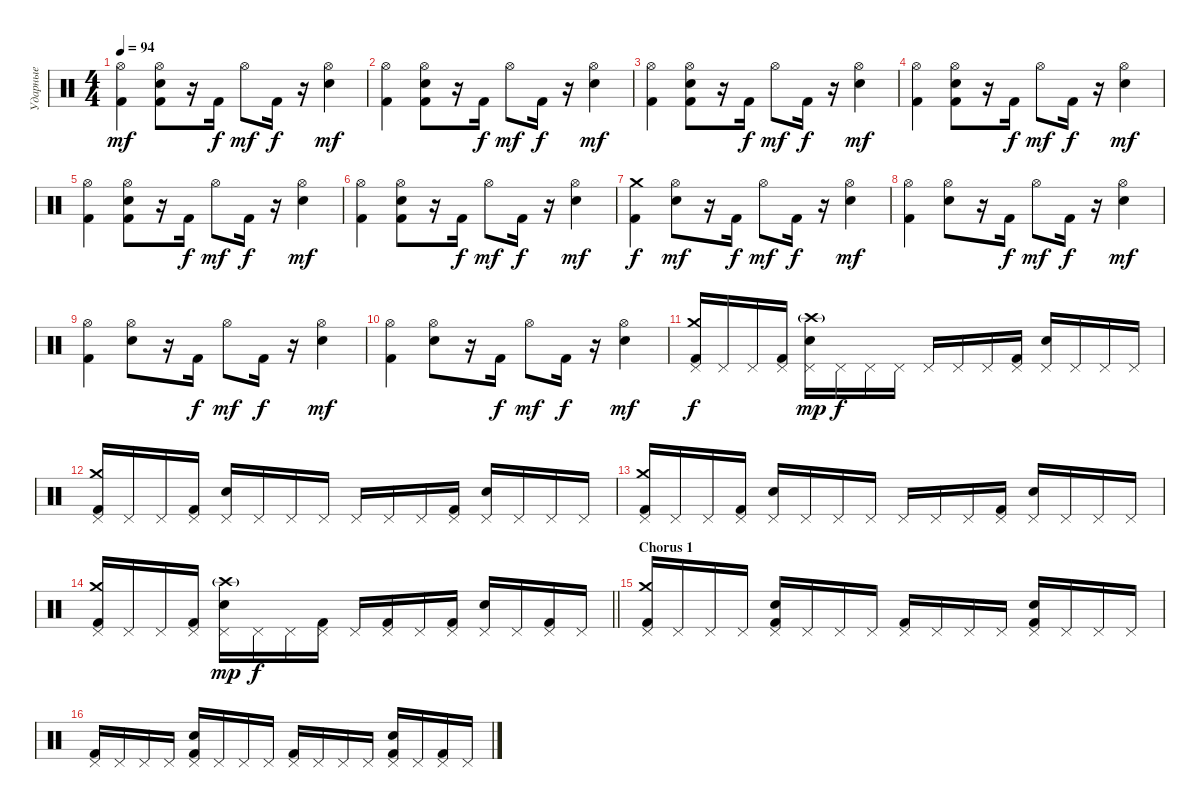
\track ("Ударные" "Ударные") {instrument percussion}
\staff {score}
\articulation defaults
\ts (4 4)
\tempo 94
\clef neutral
\ks c
("Hi-Hat (open)" "Kick (hit) 2").4{dy mf} ("Hi-Hat (open)" "Snare (hit) 2" "Kick (hit) 2").8 r.16 "Kick (hit) 2".16{dy f} "Hi-Hat (open)".8{dy mf} "Kick (hit) 2".16{dy f} r.16 ("Hi-Hat (open)" "Snare (hit) 2").4{dy mf} |
("Hi-Hat (open)" "Kick (hit) 2").4 ("Hi-Hat (open)" "Snare (hit) 2" "Kick (hit) 2").8 r.16 "Kick (hit) 2".16{dy f} "Hi-Hat (open)".8{dy mf} "Kick (hit) 2".16{dy f} r.16 ("Hi-Hat (open)" "Snare (hit) 2").4{dy mf} |
("Hi-Hat (open)" "Kick (hit) 2").4 ("Hi-Hat (open)" "Snare (hit) 2" "Kick (hit) 2").8 r.16 "Kick (hit) 2".16{dy f} "Hi-Hat (open)".8{dy mf} "Kick (hit) 2".16{dy f} r.16 ("Hi-Hat (open)" "Snare (hit) 2").4{dy mf} |
("Hi-Hat (open)" "Kick (hit) 2").4 ("Hi-Hat (open)" "Snare (hit) 2" "Kick (hit) 2").8 r.16 "Kick (hit) 2".16{dy f} "Hi-Hat (open)".8{dy mf} "Kick (hit) 2".16{dy f} r.16 ("Hi-Hat (open)" "Snare (hit) 2").4{dy mf} |
("Hi-Hat (open)" "Kick (hit) 2").4 ("Hi-Hat (open)" "Snare (hit) 2" "Kick (hit) 2").8 r.16 "Kick (hit) 2".16{dy f} "Hi-Hat (open)".8{dy mf} "Kick (hit) 2".16{dy f} r.16 ("Hi-Hat (open)" "Snare (hit) 2").4{dy mf} |
("Hi-Hat (open)" "Kick (hit) 2").4 ("Hi-Hat (open)" "Snare (hit) 2" "Kick (hit) 2").8 r.16 "Kick (hit) 2".16{dy f} "Hi-Hat (open)".8{dy mf} "Kick (hit) 2".16{dy f} r.16 ("Hi-Hat (open)" "Snare (hit) 2").4{dy mf} |
("Crash medium (hit)" "Kick (hit) 2").4{dy f} ("Hi-Hat (open)" "Snare (hit) 2").8{dy mf} r.16 "Kick (hit) 2".16{dy f} "Hi-Hat (open)".8{dy mf} "Kick (hit) 2".16{dy f} r.16 ("Hi-Hat (open)" "Snare (hit) 2").4{dy mf} |
("Hi-Hat (open)" "Kick (hit) 2").4 ("Hi-Hat (open)" "Snare (hit) 2").8 r.16 "Kick (hit) 2".16{dy f} "Hi-Hat (open)".8{dy mf} "Kick (hit) 2".16{dy f} r.16 ("Hi-Hat (open)" "Snare (hit) 2").4{dy mf} |
("Hi-Hat (open)" "Kick (hit) 2").4 ("Hi-Hat (open)" "Snare (hit) 2").8 r.16 "Kick (hit) 2".16{dy f} "Hi-Hat (open)".8{dy mf} "Kick (hit) 2".16{dy f} r.16 ("Hi-Hat (open)" "Snare (hit) 2").4{dy mf} |
("Hi-Hat (open)" "Kick (hit) 2").4 ("Hi-Hat (open)" "Snare (hit) 2").8 r.16 "Kick (hit) 2".16{dy f} "Hi-Hat (open)".8{dy mf} "Kick (hit) 2".16{dy f} r.16 ("Hi-Hat (open)" "Snare (hit) 2").4{dy mf} |
("Crash medium (hit)" "Pedal Hi-Hat (hit)" "Kick (hit) 2").16{dy f} "Pedal Hi-Hat (hit)".16 "Pedal Hi-Hat (hit)".16 ("Pedal Hi-Hat (hit)" "Kick (hit) 2").16 ("Crash high (hit)"{g} "Pedal Hi-Hat (hit)" "Snare (hit) 2").16{dy mp} "Pedal Hi-Hat (hit)".16{dy f} "Pedal Hi-Hat (hit)".16 "Pedal Hi-Hat (hit)".16 "Pedal Hi-Hat (hit)".16 "Pedal Hi-Hat (hit)".16 "Pedal Hi-Hat (hit)".16 ("Pedal Hi-Hat (hit)" "Kick (hit) 2").16 ("Pedal Hi-Hat (hit)" "Snare (hit) 2").16 "Pedal Hi-Hat (hit)".16 "Pedal Hi-Hat (hit)".16 "Pedal Hi-Hat (hit)".16 |
("Crash medium (hit)" "Pedal Hi-Hat (hit)" "Kick (hit) 2").16 "Pedal Hi-Hat (hit)".16 "Pedal Hi-Hat (hit)".16 ("Pedal Hi-Hat (hit)" "Kick (hit) 2").16 ("Pedal Hi-Hat (hit)" "Snare (hit) 2").16 "Pedal Hi-Hat (hit)".16 "Pedal Hi-Hat (hit)".16 "Pedal Hi-Hat (hit)".16 "Pedal Hi-Hat (hit)".16 "Pedal Hi-Hat (hit)".16 "Pedal Hi-Hat (hit)".16 ("Pedal Hi-Hat (hit)" "Kick (hit) 2").16 ("Pedal Hi-Hat (hit)" "Snare (hit) 2").16 "Pedal Hi-Hat (hit)".16 "Pedal Hi-Hat (hit)".16 "Pedal Hi-Hat (hit)".16 |
("Crash medium (hit)" "Pedal Hi-Hat (hit)" "Kick (hit) 2").16 "Pedal Hi-Hat (hit)".16 "Pedal Hi-Hat (hit)".16 ("Pedal Hi-Hat (hit)" "Kick (hit) 2").16 ("Pedal Hi-Hat (hit)" "Snare (hit) 2").16 "Pedal Hi-Hat (hit)".16 "Pedal Hi-Hat (hit)".16 "Pedal Hi-Hat (hit)".16 "Pedal Hi-Hat (hit)".16 "Pedal Hi-Hat (hit)".16 "Pedal Hi-Hat (hit)".16 ("Pedal Hi-Hat (hit)" "Kick (hit) 2").16 ("Pedal Hi-Hat (hit)" "Snare (hit) 2").16 "Pedal Hi-Hat (hit)".16 "Pedal Hi-Hat (hit)".16 "Pedal Hi-Hat (hit)".16 |
\barLineRight lightlight
("Crash medium (hit)" "Pedal Hi-Hat (hit)" "Kick (hit) 2").16 "Pedal Hi-Hat (hit)".16 "Pedal Hi-Hat (hit)".16 ("Pedal Hi-Hat (hit)" "Kick (hit) 2").16 ("Crash high (hit)"{g} "Pedal Hi-Hat (hit)" "Snare (hit) 2").16{dy mp} "Pedal Hi-Hat (hit)".16{dy f} "Pedal Hi-Hat (hit)".16 ("Pedal Hi-Hat (hit)" "Kick (hit) 2").16 "Pedal Hi-Hat (hit)".16 ("Pedal Hi-Hat (hit)" "Kick (hit) 2").16 "Pedal Hi-Hat (hit)".16 ("Pedal Hi-Hat (hit)" "Kick (hit) 2").16 ("Pedal Hi-Hat (hit)" "Snare (hit) 2").16 "Pedal Hi-Hat (hit)".16 ("Pedal Hi-Hat (hit)" "Kick (hit) 2").16 "Pedal Hi-Hat (hit)".16 |
\section ("" "Chorus 1")
("Crash medium (hit)" "Pedal Hi-Hat (hit)" "Kick (hit) 2").16 "Pedal Hi-Hat (hit)".16 "Pedal Hi-Hat (hit)".16 "Pedal Hi-Hat (hit)".16 ("Pedal Hi-Hat (hit)" "Snare (hit) 2" "Kick (hit) 2").16 "Pedal Hi-Hat (hit)".16 "Pedal Hi-Hat (hit)".16 "Pedal Hi-Hat (hit)".16 ("Pedal Hi-Hat (hit)" "Kick (hit) 2").16 "Pedal Hi-Hat (hit)".16 "Pedal Hi-Hat (hit)".16 "Pedal Hi-Hat (hit)".16 ("Pedal Hi-Hat (hit)" "Snare (hit) 2" "Kick (hit) 2").16 "Pedal Hi-Hat (hit)".16 "Pedal Hi-Hat (hit)".16 "Pedal Hi-Hat (hit)".16 |
("Pedal Hi-Hat (hit)" "Kick (hit) 2").16 "Pedal Hi-Hat (hit)".16 "Pedal Hi-Hat (hit)".16 "Pedal Hi-Hat (hit)".16 ("Pedal Hi-Hat (hit)" "Snare (hit) 2" "Kick (hit) 2").16 "Pedal Hi-Hat (hit)".16 "Pedal Hi-Hat (hit)".16 "Pedal Hi-Hat (hit)".16 ("Pedal Hi-Hat (hit)" "Kick (hit) 2").16 "Pedal Hi-Hat (hit)".16 "Pedal Hi-Hat (hit)".16 "Pedal Hi-Hat (hit)".16 ("Pedal Hi-Hat (hit)" "Snare (hit) 2" "Kick (hit) 2").16 "Pedal Hi-Hat (hit)".16 ("Pedal Hi-Hat (hit)" "Kick (hit) 2").16 "Pedal Hi-Hat (hit)".16
